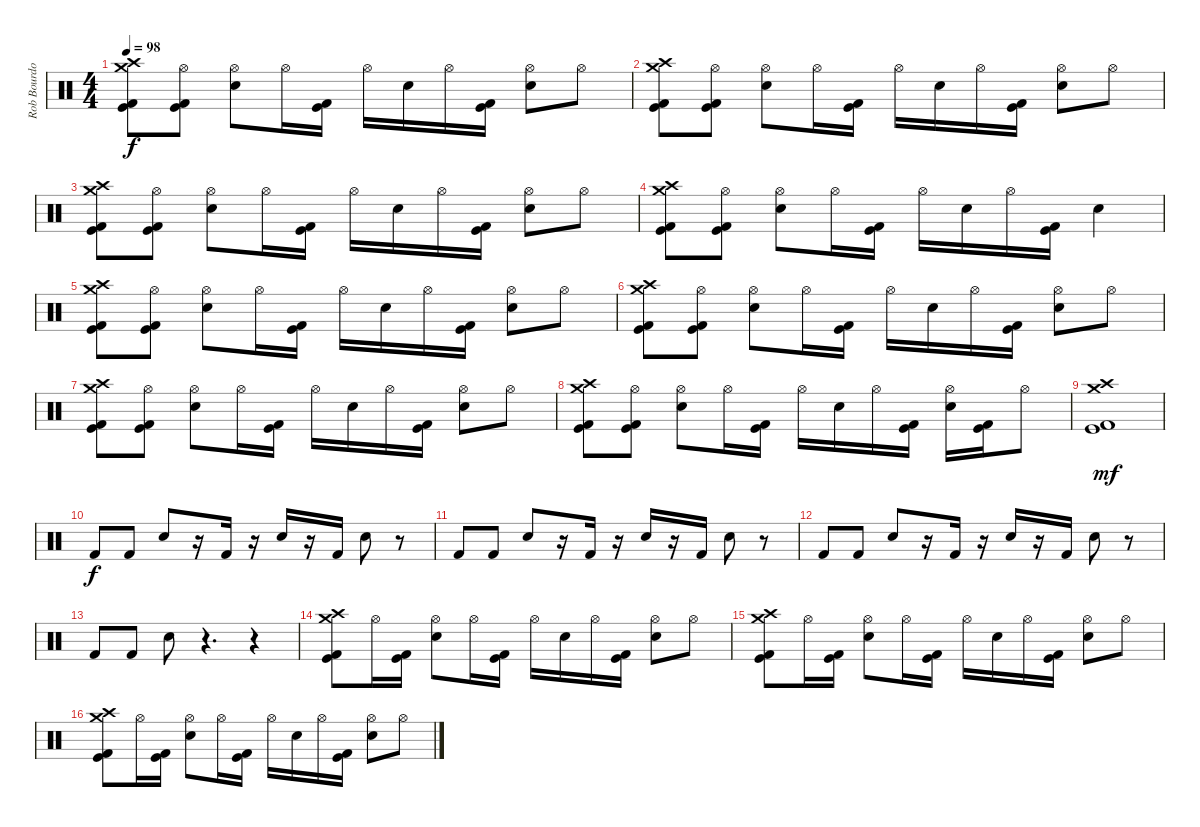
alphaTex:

\track ("Rob Bourdon (Drums)" "Rob Bourdo") {instrument percussion}
\staff {score}
\articulation defaults
\ts (4 4)
\tempo 98
\clef neutral
\ks c
("Crash medium (hit)" "Crash high (hit)" "Kick (hit)" "Kick (hit) 2").8{dy f} ("Hi-Hat (open)" "Kick (hit)" "Kick (hit) 2").8 ("Hi-Hat (open)" "Electric Snare (hit)").8 "Hi-Hat (open)".16 ("Kick (hit)" "Kick (hit) 2").16 "Hi-Hat (open)".16 "Electric Snare (hit)".16 "Hi-Hat (open)".16 ("Kick (hit)" "Kick (hit) 2").16 ("Hi-Hat (open)" "Electric Snare (hit)").8 "Hi-Hat (open)".8 |
("Crash medium (hit)" "Crash high (hit)" "Kick (hit)" "Kick (hit) 2").8 ("Hi-Hat (open)" "Kick (hit)" "Kick (hit) 2").8 ("Hi-Hat (open)" "Electric Snare (hit)").8 "Hi-Hat (open)".16 ("Kick (hit)" "Kick (hit) 2").16 "Hi-Hat (open)".16 "Electric Snare (hit)".16 "Hi-Hat (open)".16 ("Kick (hit)" "Kick (hit) 2").16 ("Hi-Hat (open)" "Electric Snare (hit)").8 "Hi-Hat (open)".8 |
("Crash medium (hit)" "Crash high (hit)" "Kick (hit)" "Kick (hit) 2").8 ("Hi-Hat (open)" "Kick (hit)" "Kick (hit) 2").8 ("Hi-Hat (open)" "Electric Snare (hit)").8 "Hi-Hat (open)".16 ("Kick (hit)" "Kick (hit) 2").16 "Hi-Hat (open)".16 "Electric Snare (hit)".16 "Hi-Hat (open)".16 ("Kick (hit)" "Kick (hit) 2").16 ("Hi-Hat (open)" "Electric Snare (hit)").8 "Hi-Hat (open)".8 |
("Crash medium (hit)" "Crash high (hit)" "Kick (hit)" "Kick (hit) 2").8 ("Hi-Hat (open)" "Kick (hit)" "Kick (hit) 2").8 ("Hi-Hat (open)" "Electric Snare (hit)").8 "Hi-Hat (open)".16 ("Kick (hit)" "Kick (hit) 2").16 "Hi-Hat (open)".16 "Electric Snare (hit)".16 "Hi-Hat (open)".16 ("Kick (hit)" "Kick (hit) 2").16 "Electric Snare (hit)".4 |
("Crash medium (hit)" "Crash high (hit)" "Kick (hit)" "Kick (hit) 2").8 ("Hi-Hat (open)" "Kick (hit)" "Kick (hit) 2").8 ("Hi-Hat (open)" "Electric Snare (hit)").8 "Hi-Hat (open)".16 ("Kick (hit)" "Kick (hit) 2").16 "Hi-Hat (open)".16 "Electric Snare (hit)".16 "Hi-Hat (open)".16 ("Kick (hit)" "Kick (hit) 2").16 ("Hi-Hat (open)" "Electric Snare (hit)").8 "Hi-Hat (open)".8 |
("Crash medium (hit)" "Crash high (hit)" "Kick (hit)" "Kick (hit) 2").8 ("Hi-Hat (open)" "Kick (hit)" "Kick (hit) 2").8 ("Hi-Hat (open)" "Electric Snare (hit)").8 "Hi-Hat (open)".16 ("Kick (hit)" "Kick (hit) 2").16 "Hi-Hat (open)".16 "Electric Snare (hit)".16 "Hi-Hat (open)".16 ("Kick (hit)" "Kick (hit) 2").16 ("Hi-Hat (open)" "Electric Snare (hit)").8 "Hi-Hat (open)".8 |
("Crash medium (hit)" "Crash high (hit)" "Kick (hit)" "Kick (hit) 2").8 ("Hi-Hat (open)" "Kick (hit)" "Kick (hit) 2").8 ("Hi-Hat (open)" "Electric Snare (hit)").8 "Hi-Hat (open)".16 ("Kick (hit)" "Kick (hit) 2").16 "Hi-Hat (open)".16 "Electric Snare (hit)".16 "Hi-Hat (open)".16 ("Kick (hit)" "Kick (hit) 2").16 ("Hi-Hat (open)" "Electric Snare (hit)").8 "Hi-Hat (open)".8 |
("Crash medium (hit)" "Crash high (hit)" "Kick (hit)" "Kick (hit) 2").8 ("Hi-Hat (open)" "Kick (hit)" "Kick (hit) 2").8 ("Hi-Hat (open)" "Electric Snare (hit)").8 "Hi-Hat (open)".16 ("Kick (hit)" "Kick (hit) 2").16 "Hi-Hat (open)".16 "Electric Snare (hit)".16 "Hi-Hat (open)".16 ("Kick (hit)" "Kick (hit) 2").16 ("Hi-Hat (open)" "Electric Snare (hit)").16 ("Kick (hit)" "Kick (hit) 2").16 "Hi-Hat (open)".8 |
("Crash medium (hit)" "Crash high (hit)" "Kick (hit)" "Kick (hit) 2").1{dy mf} |
"Kick (hit) 2".8{dy f} "Kick (hit) 2".8 "Electric Snare (hit)".8 r.16 "Kick (hit) 2".16 r.16 "Electric Snare (hit)".16 r.16 "Kick (hit) 2".16 "Electric Snare (hit)".8 r.8 |
"Kick (hit) 2".8 "Kick (hit) 2".8 "Electric Snare (hit)".8 r.16 "Kick (hit) 2".16 r.16 "Electric Snare (hit)".16 r.16 "Kick (hit) 2".16 "Electric Snare (hit)".8 r.8 |
"Kick (hit) 2".8 "Kick (hit) 2".8 "Electric Snare (hit)".8 r.16 "Kick (hit) 2".16 r.16 "Electric Snare (hit)".16 r.16 "Kick (hit) 2".16 "Electric Snare (hit)".8 r.8 |
"Kick (hit) 2".8 "Kick (hit) 2".8 "Electric Snare (hit)".8 r.4{d} r.4 |
("Crash medium (hit)" "Crash high (hit)" "Kick (hit)" "Kick (hit) 2").8 "Hi-Hat (open)".16 ("Kick (hit)" "Kick (hit) 2").16 ("Hi-Hat (open)" "Electric Snare (hit)").8 "Hi-Hat (open)".16 ("Kick (hit)" "Kick (hit) 2").16 "Hi-Hat (open)".16 "Electric Snare (hit)".16 "Hi-Hat (open)".16 ("Kick (hit)" "Kick (hit) 2").16 ("Hi-Hat (open)" "Electric Snare (hit)").8 "Hi-Hat (open)".8 |
("Crash medium (hit)" "Crash high (hit)" "Kick (hit)" "Kick (hit) 2").8 "Hi-Hat (open)".16 ("Kick (hit)" "Kick (hit) 2").16 ("Hi-Hat (open)" "Electric Snare (hit)").8 "Hi-Hat (open)".16 ("Kick (hit)" "Kick (hit) 2").16 "Hi-Hat (open)".16 "Electric Snare (hit)".16 "Hi-Hat (open)".16 ("Kick (hit)" "Kick (hit) 2").16 ("Hi-Hat (open)" "Electric Snare (hit)").8 "Hi-Hat (open)".8 |
("Crash medium (hit)" "Crash high (hit)" "Kick (hit)" "Kick (hit) 2").8 "Hi-Hat (open)".16 ("Kick (hit)" "Kick (hit) 2").16 ("Hi-Hat (open)" "Electric Snare (hit)").8 "Hi-Hat (open)".16 ("Kick (hit)" "Kick (hit) 2").16 "Hi-Hat (open)".16 "Electric Snare (hit)".16 "Hi-Hat (open)".16 ("Kick (hit)" "Kick (hit) 2").16 ("Hi-Hat (open)" "Electric Snare (hit)").8 "Hi-Hat (open)".8
